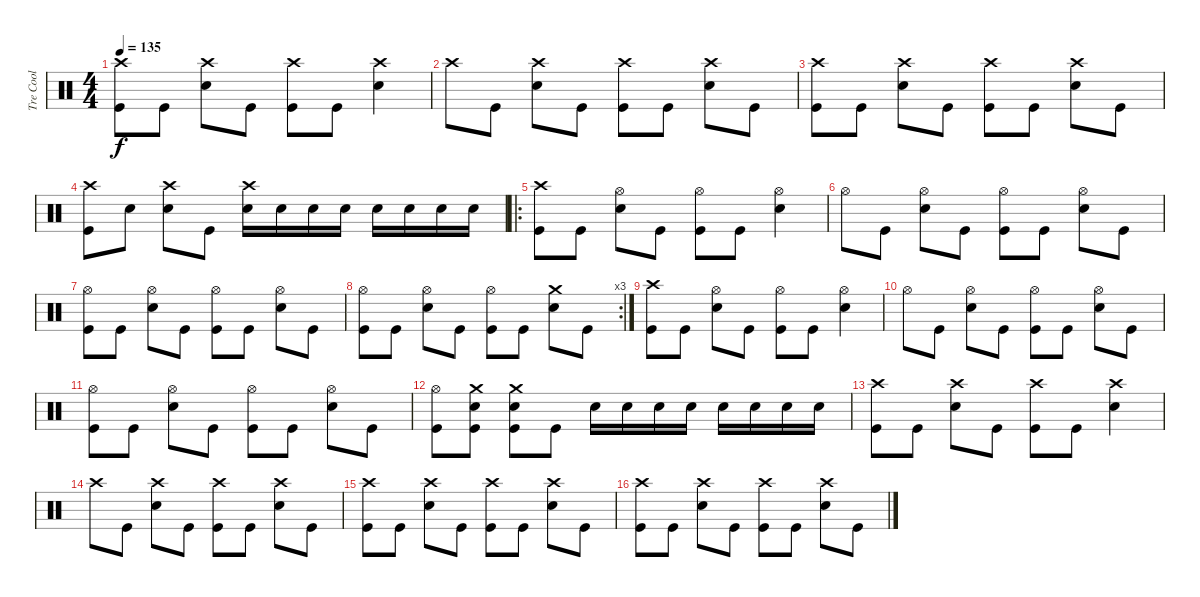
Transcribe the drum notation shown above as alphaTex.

\track ("Tre Cool" "Tre Cool") {instrument percussion}
\staff {score}
\articulation defaults
\ts (4 4)
\tempo 135
\clef neutral
\ks c
("Crash high (hit)" "Kick (hit)").8{dy f} "Kick (hit)".8 ("Crash high (hit)" "Snare (hit) 2").8 "Kick (hit)".8 ("Crash high (hit)" "Kick (hit)").8 "Kick (hit)".8 ("Crash high (hit)" "Snare (hit) 2").4 |
"Crash high (hit)".8 "Kick (hit)".8 ("Crash high (hit)" "Snare (hit) 2").8 "Kick (hit)".8 ("Crash high (hit)" "Kick (hit)").8 "Kick (hit)".8 ("Crash high (hit)" "Snare (hit) 2").8 "Kick (hit)".8 |
("Crash high (hit)" "Kick (hit)").8 "Kick (hit)".8 ("Crash high (hit)" "Snare (hit) 2").8 "Kick (hit)".8 ("Crash high (hit)" "Kick (hit)").8 "Kick (hit)".8 ("Crash high (hit)" "Snare (hit) 2").8 "Kick (hit)".8 |
("Crash high (hit)" "Kick (hit)").8 "Snare (hit) 2".8 ("Crash high (hit)" "Snare (hit) 2").8 "Kick (hit)".8 ("Crash high (hit)" "Snare (hit) 2").16 "Snare (hit) 2".16 "Snare (hit) 2".16 "Snare (hit) 2".16 "Snare (hit) 2".16 "Snare (hit) 2".16 "Snare (hit) 2".16 "Snare (hit) 2".16 |
\ro
("Crash high (hit)" "Kick (hit)").8 "Kick (hit)".8 ("Hi-Hat (open)" "Snare (hit) 2").8 "Kick (hit)".8 ("Hi-Hat (open)" "Kick (hit)").8 "Kick (hit)".8 ("Hi-Hat (open)" "Snare (hit) 2").4 |
"Hi-Hat (open)".8 "Kick (hit)".8 ("Hi-Hat (open)" "Snare (hit) 2").8 "Kick (hit)".8 ("Hi-Hat (open)" "Kick (hit)").8 "Kick (hit)".8 ("Hi-Hat (open)" "Snare (hit) 2").8 "Kick (hit)".8 |
("Hi-Hat (open)" "Kick (hit)").8 "Kick (hit)".8 ("Hi-Hat (open)" "Snare (hit) 2").8 "Kick (hit)".8 ("Hi-Hat (open)" "Kick (hit)").8 "Kick (hit)".8 ("Hi-Hat (open)" "Snare (hit) 2").8 "Kick (hit)".8 |
\rc 3
("Hi-Hat (open)" "Kick (hit)").8 "Kick (hit)".8 ("Hi-Hat (open)" "Snare (hit) 2").8 "Kick (hit)".8 ("Hi-Hat (open)" "Kick (hit)").8 "Kick (hit)".8 ("Crash medium (hit)" "Snare (hit) 2").8 "Kick (hit)".8 |
("Crash high (hit)" "Kick (hit)").8 "Kick (hit)".8 ("Hi-Hat (open)" "Snare (hit) 2").8 "Kick (hit)".8 ("Hi-Hat (open)" "Kick (hit)").8 "Kick (hit)".8 ("Hi-Hat (open)" "Snare (hit) 2").4 |
"Hi-Hat (open)".8 "Kick (hit)".8 ("Hi-Hat (open)" "Snare (hit) 2").8 "Kick (hit)".8 ("Hi-Hat (open)" "Kick (hit)").8 "Kick (hit)".8 ("Hi-Hat (open)" "Snare (hit) 2").8 "Kick (hit)".8 |
("Hi-Hat (open)" "Kick (hit)").8 "Kick (hit)".8 ("Hi-Hat (open)" "Snare (hit) 2").8 "Kick (hit)".8 ("Hi-Hat (open)" "Kick (hit)").8 "Kick (hit)".8 ("Hi-Hat (open)" "Snare (hit) 2").8 "Kick (hit)".8 |
("Hi-Hat (open)" "Kick (hit)").8 ("Crash medium (hit)" "Snare (hit) 2" "Kick (hit)").8 ("Crash medium (hit)" "Snare (hit) 2" "Kick (hit)").8 "Kick (hit)".8 "Snare (hit) 2".16 "Snare (hit) 2".16 "Snare (hit) 2".16 "Snare (hit) 2".16 "Snare (hit) 2".16 "Snare (hit) 2".16 "Snare (hit) 2".16 "Snare (hit) 2".16 |
("Crash high (hit)" "Kick (hit)").8 "Kick (hit)".8 ("Crash high (hit)" "Snare (hit) 2").8 "Kick (hit)".8 ("Crash high (hit)" "Kick (hit)").8 "Kick (hit)".8 ("Crash high (hit)" "Snare (hit) 2").4 |
"Crash high (hit)".8 "Kick (hit)".8 ("Crash high (hit)" "Snare (hit) 2").8 "Kick (hit)".8 ("Crash high (hit)" "Kick (hit)").8 "Kick (hit)".8 ("Crash high (hit)" "Snare (hit) 2").8 "Kick (hit)".8 |
("Crash high (hit)" "Kick (hit)").8 "Kick (hit)".8 ("Crash high (hit)" "Snare (hit) 2").8 "Kick (hit)".8 ("Crash high (hit)" "Kick (hit)").8 "Kick (hit)".8 ("Crash high (hit)" "Snare (hit) 2").8 "Kick (hit)".8 |
("Crash high (hit)" "Kick (hit)").8 "Kick (hit)".8 ("Crash high (hit)" "Snare (hit) 2").8 "Kick (hit)".8 ("Crash high (hit)" "Kick (hit)").8 "Kick (hit)".8 ("Crash high (hit)" "Snare (hit) 2").8 "Kick (hit)".8
